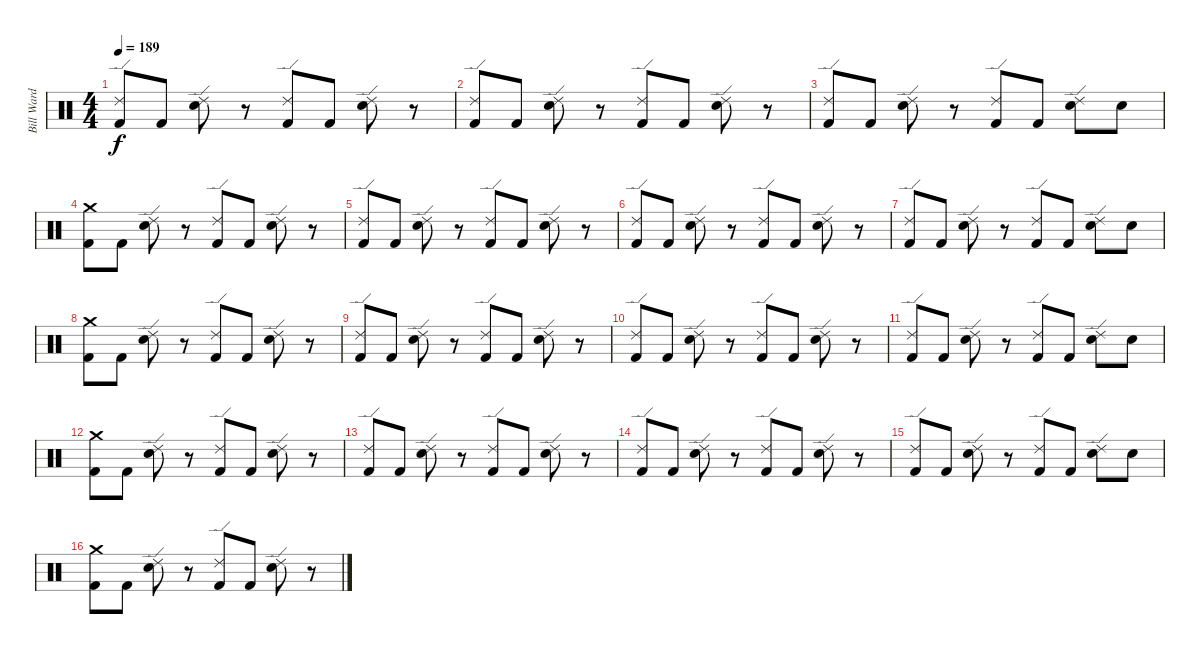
\track ("Bill Ward" "Bill Ward") {instrument percussion}
\staff {score}
\articulation defaults
\ts (4 4)
\tempo 189
\clef neutral
\ks c
("Kick (hit) 2" "Ride (edge) 2").8{dy f} "Kick (hit) 2".8 ("Ride (edge) 2" "Electric Snare (hit)").8 r.8 ("Kick (hit) 2" "Ride (edge) 2").8 "Kick (hit) 2".8 ("Electric Snare (hit)" "Ride (edge) 2").8 r.8 |
("Ride (edge) 2" "Kick (hit) 2").8 "Kick (hit) 2".8 ("Electric Snare (hit)" "Ride (edge) 2").8 r.8 ("Ride (edge) 2" "Kick (hit) 2").8 "Kick (hit) 2".8 ("Electric Snare (hit)" "Ride (edge) 2").8 r.8 |
("Ride (edge) 2" "Kick (hit) 2").8 "Kick (hit) 2".8 ("Ride (edge) 2" "Electric Snare (hit)").8 r.8 ("Ride (edge) 2" "Kick (hit) 2").8 "Kick (hit) 2".8 ("Electric Snare (hit)" "Ride (edge) 2").8 "Electric Snare (hit)".8 |
("Crash medium (hit)" "Kick (hit) 2").8 "Kick (hit) 2".8 ("Ride (edge) 2" "Electric Snare (hit)").8 r.8 ("Ride (edge) 2" "Kick (hit) 2").8 "Kick (hit) 2".8 ("Ride (edge) 2" "Electric Snare (hit)").8 r.8 |
("Ride (edge) 2" "Kick (hit) 2").8 "Kick (hit) 2".8 ("Electric Snare (hit)" "Ride (edge) 2").8 r.8 ("Kick (hit) 2" "Ride (edge) 2").8 "Kick (hit) 2".8 ("Ride (edge) 2" "Electric Snare (hit)").8 r.8 |
("Kick (hit) 2" "Ride (edge) 2").8 "Kick (hit) 2".8 ("Electric Snare (hit)" "Ride (edge) 2").8 r.8 ("Kick (hit) 2" "Ride (edge) 2").8 "Kick (hit) 2".8 ("Electric Snare (hit)" "Ride (edge) 2").8 r.8 |
("Ride (edge) 2" "Kick (hit) 2").8 "Kick (hit) 2".8 ("Electric Snare (hit)" "Ride (edge) 2").8 r.8 ("Ride (edge) 2" "Kick (hit) 2").8 "Kick (hit) 2".8 ("Ride (edge) 2" "Electric Snare (hit)").8 "Electric Snare (hit)".8 |
("Kick (hit) 2" "Crash medium (hit)").8 "Kick (hit) 2".8 ("Ride (edge) 2" "Electric Snare (hit)").8 r.8 ("Kick (hit) 2" "Ride (edge) 2").8 "Kick (hit) 2".8 ("Electric Snare (hit)" "Ride (edge) 2").8 r.8 |
("Ride (edge) 2" "Kick (hit) 2").8 "Kick (hit) 2".8 ("Ride (edge) 2" "Electric Snare (hit)").8 r.8 ("Ride (edge) 2" "Kick (hit) 2").8 "Kick (hit) 2".8 ("Ride (edge) 2" "Electric Snare (hit)").8 r.8 |
("Ride (edge) 2" "Kick (hit) 2").8 "Kick (hit) 2".8 ("Ride (edge) 2" "Electric Snare (hit)").8 r.8 ("Ride (edge) 2" "Kick (hit) 2").8 "Kick (hit) 2".8 ("Ride (edge) 2" "Electric Snare (hit)").8 r.8 |
("Kick (hit) 2" "Ride (edge) 2").8 "Kick (hit) 2".8 ("Ride (edge) 2" "Electric Snare (hit)").8 r.8 ("Ride (edge) 2" "Kick (hit) 2").8 "Kick (hit) 2".8 ("Ride (edge) 2" "Electric Snare (hit)").8 "Electric Snare (hit)".8 |
("Kick (hit) 2" "Crash medium (hit)").8 "Kick (hit) 2".8 ("Electric Snare (hit)" "Ride (edge) 2").8 r.8 ("Ride (edge) 2" "Kick (hit) 2").8 "Kick (hit) 2".8 ("Electric Snare (hit)" "Ride (edge) 2").8 r.8 |
("Kick (hit) 2" "Ride (edge) 2").8 "Kick (hit) 2".8 ("Ride (edge) 2" "Electric Snare (hit)").8 r.8 ("Ride (edge) 2" "Kick (hit) 2").8 "Kick (hit) 2".8 ("Electric Snare (hit)" "Ride (edge) 2").8 r.8 |
("Ride (edge) 2" "Kick (hit) 2").8 "Kick (hit) 2".8 ("Ride (edge) 2" "Electric Snare (hit)").8 r.8 ("Ride (edge) 2" "Kick (hit) 2").8 "Kick (hit) 2".8 ("Electric Snare (hit)" "Ride (edge) 2").8 r.8 |
("Kick (hit) 2" "Ride (edge) 2").8 "Kick (hit) 2".8 ("Electric Snare (hit)" "Ride (edge) 2").8 r.8 ("Ride (edge) 2" "Kick (hit) 2").8 "Kick (hit) 2".8 ("Electric Snare (hit)" "Ride (edge) 2").8 "Electric Snare (hit)".8 |
("Kick (hit) 2" "Crash medium (hit)").8 "Kick (hit) 2".8 ("Ride (edge) 2" "Electric Snare (hit)").8 r.8 ("Ride (edge) 2" "Kick (hit) 2").8 "Kick (hit) 2".8 ("Electric Snare (hit)" "Ride (edge) 2").8 r.8
